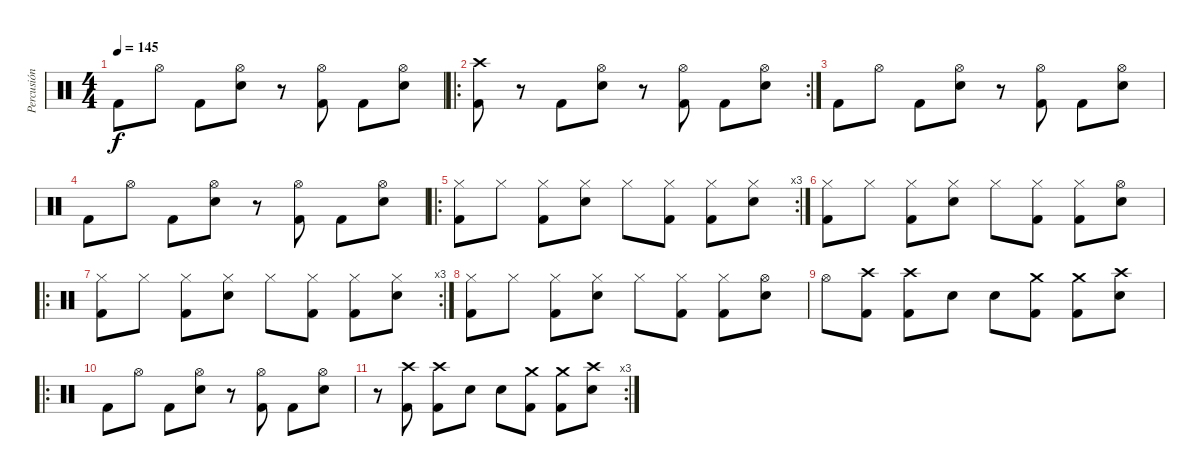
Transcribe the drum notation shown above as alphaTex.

\track ("Percusión" "Percusión") {instrument percussion}
\staff {score}
\articulation defaults
\ts (4 4)
\tempo 145
\clef neutral
\ks c "Kick (hit) 2".8{dy f} "Hi-Hat (open)".8 "Kick (hit) 2".8
("Hi-Hat (open)" "Electric Snare (hit)").8 r.8 ("Hi-Hat (open)" "Kick (hit) 2").8 "Kick (hit) 2".8 ("Hi-Hat (open)" "Electric Snare (hit)").8 |
\ro
\rc 2
("Crash high (hit)" "Kick (hit) 2").8 r.8 "Kick (hit) 2".8 ("Hi-Hat (open)" "Electric Snare (hit)").8 r.8 ("Hi-Hat (open)" "Kick (hit) 2").8 "Kick (hit) 2".8 ("Hi-Hat (open)" "Electric Snare (hit)").8 |
"Kick (hit) 2".8 "Hi-Hat (open)".8 "Kick (hit) 2".8 ("Hi-Hat (open)" "Electric Snare (hit)").8 r.8 ("Hi-Hat (open)" "Kick (hit) 2").8 "Kick (hit) 2".8 ("Hi-Hat (open)" "Electric Snare (hit)").8 |
"Kick (hit) 2".8 "Hi-Hat (open)".8 "Kick (hit) 2".8 ("Hi-Hat (open)" "Electric Snare (hit)").8 r.8 ("Hi-Hat (open)" "Kick (hit) 2").8 "Kick (hit) 2".8 ("Hi-Hat (open)" "Electric Snare (hit)").8 |
\ro
\rc 3
("Hi-Hat (closed)" "Kick (hit) 2").8 "Hi-Hat (closed)".8 ("Hi-Hat (closed)" "Kick (hit) 2").8 ("Hi-Hat (closed)" "Electric Snare (hit)").8 "Hi-Hat (closed)".8 ("Hi-Hat (closed)" "Kick (hit) 2").8 ("Hi-Hat (closed)" "Kick (hit) 2").8 ("Hi-Hat (closed)" "Electric Snare (hit)").8 |
("Hi-Hat (closed)" "Kick (hit) 2").8 "Hi-Hat (closed)".8 ("Hi-Hat (closed)" "Kick (hit) 2").8 ("Hi-Hat (closed)" "Electric Snare (hit)").8 "Hi-Hat (closed)".8 ("Hi-Hat (closed)" "Kick (hit) 2").8 ("Hi-Hat (closed)" "Kick (hit) 2").8 ("Hi-Hat (open)" "Electric Snare (hit)").8 |
\ro
\rc 3
("Hi-Hat (closed)" "Kick (hit) 2").8 "Hi-Hat (closed)".8 ("Hi-Hat (closed)" "Kick (hit) 2").8 ("Hi-Hat (closed)" "Electric Snare (hit)").8 "Hi-Hat (closed)".8 ("Hi-Hat (closed)" "Kick (hit) 2").8 ("Hi-Hat (closed)" "Kick (hit) 2").8 ("Hi-Hat (closed)" "Electric Snare (hit)").8 |
("Hi-Hat (closed)" "Kick (hit) 2").8 "Hi-Hat (closed)".8 ("Hi-Hat (closed)" "Kick (hit) 2").8 ("Hi-Hat (closed)" "Electric Snare (hit)").8 "Hi-Hat (closed)".8 ("Hi-Hat (closed)" "Kick (hit) 2").8 ("Hi-Hat (closed)" "Kick (hit) 2").8 ("Hi-Hat (open)" "Electric Snare (hit)").8 |
"Hi-Hat (open)".8 ("Crash high (hit)" "Kick (hit) 2").8 ("Crash high (hit)" "Kick (hit) 2").8 "Electric Snare (hit)".8 "Electric Snare (hit)".8 ("Crash medium (hit)" "Kick (hit) 2").8 ("Crash medium (hit)" "Kick (hit) 2").8 ("Crash high (hit)" "Electric Snare (hit)").8 |
\ro "Kick (hit) 2".8 "Hi-Hat (open)".8 "Kick (hit) 2".8
("Hi-Hat (open)" "Electric Snare (hit)").8 r.8 ("Hi-Hat (open)" "Kick (hit) 2").8 "Kick (hit) 2".8 ("Hi-Hat (open)" "Electric Snare (hit)").8 |
\rc 3
r.8 ("Crash high (hit)" "Kick (hit) 2").8 ("Crash high (hit)" "Kick (hit) 2").8 "Electric Snare (hit)".8 "Electric Snare (hit)".8 ("Crash medium (hit)" "Kick (hit) 2").8 ("Crash medium (hit)" "Kick (hit) 2").8 ("Crash high (hit)" "Electric Snare (hit)").8
